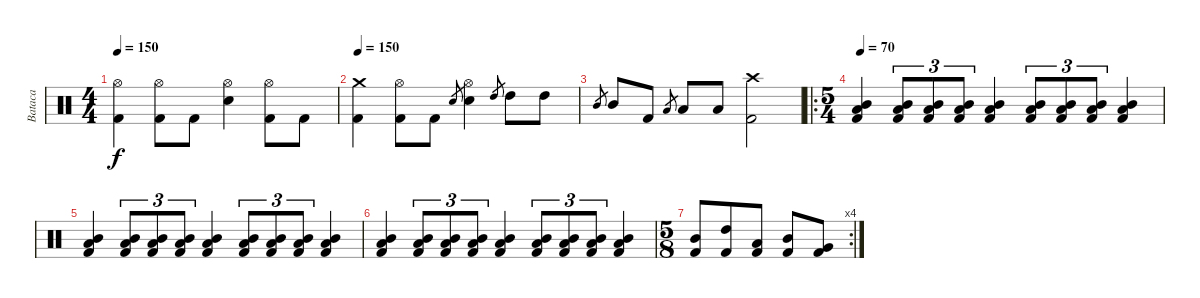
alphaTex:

\track ("Bataca" "Bataca") {instrument percussion}
\staff {score}
\articulation defaults
\ts (4 4)
\tempo 150
\clef neutral
\ks c
("Hi-Hat (open)" "Kick (hit) 2").4{dy f} ("Hi-Hat (open)" "Kick (hit) 2").8 "Kick (hit) 2".8 ("Hi-Hat (open)" "Electric Snare (hit)").4 ("Hi-Hat (open)" "Kick (hit) 2").8 "Kick (hit) 2".8 |
\tempo 150
("Crash medium (hit)" "Kick (hit) 2").4 ("Hi-Hat (open)" "Kick (hit) 2").8 "Kick (hit) 2".8 "Electric Snare (hit)".8{gr} ("Hi-Hat (open)" "Electric Snare (hit)").4 "High Tom (hit)".8{gr} "High Tom (hit)".8 "High Tom (hit)".8 |
"Mid Tom (hit)".8{gr} "Mid Tom (hit)".8 "Kick (hit) 2".8 "Low Tom (hit)".8{gr} "Low Tom (hit)".8 "Low Tom (hit)".8 ("Crash high (hit)" "Kick (hit) 2").2 |
\ro
\ts (5 4)
\tempo 80
\tempo 70
("Low Tom (hit)" "Mid Tom (hit)" "Kick (hit) 2").4 ("Low Tom (hit)" "Mid Tom (hit)" "Kick (hit) 2").8{tu (3 2)} ("Low Tom (hit)" "Mid Tom (hit)" "Kick (hit) 2").8{tu (3 2)} ("Low Tom (hit)" "Mid Tom (hit)" "Kick (hit) 2").8{tu (3 2)} ("Low Tom (hit)" "Mid Tom (hit)" "Kick (hit) 2").4 ("Low Tom (hit)" "Mid Tom (hit)" "Kick (hit) 2").8{tu (3 2)} ("Low Tom (hit)" "Mid Tom (hit)" "Kick (hit) 2").8{tu (3 2)} ("Low Tom (hit)" "Mid Tom (hit)" "Kick (hit) 2").8{tu (3 2)} ("Low Tom (hit)" "Mid Tom (hit)" "Kick (hit) 2").4 |
("Low Tom (hit)" "Mid Tom (hit)" "Kick (hit) 2").4 ("Low Tom (hit)" "Mid Tom (hit)" "Kick (hit) 2").8{tu (3 2)} ("Low Tom (hit)" "Mid Tom (hit)" "Kick (hit) 2").8{tu (3 2)} ("Low Tom (hit)" "Mid Tom (hit)" "Kick (hit) 2").8{tu (3 2)} ("Low Tom (hit)" "Mid Tom (hit)" "Kick (hit) 2").4 ("Low Tom (hit)" "Mid Tom (hit)" "Kick (hit) 2").8{tu (3 2)} ("Low Tom (hit)" "Mid Tom (hit)" "Kick (hit) 2").8{tu (3 2)} ("Low Tom (hit)" "Mid Tom (hit)" "Kick (hit) 2").8{tu (3 2)} ("Low Tom (hit)" "Mid Tom (hit)" "Kick (hit) 2").4 |
("Low Tom (hit)" "Mid Tom (hit)" "Kick (hit) 2").4 ("Low Tom (hit)" "Mid Tom (hit)" "Kick (hit) 2").8{tu (3 2)} ("Low Tom (hit)" "Mid Tom (hit)" "Kick (hit) 2").8{tu (3 2)} ("Low Tom (hit)" "Mid Tom (hit)" "Kick (hit) 2").8{tu (3 2)} ("Low Tom (hit)" "Mid Tom (hit)" "Kick (hit) 2").4 ("Low Tom (hit)" "Mid Tom (hit)" "Kick (hit) 2").8{tu (3 2)} ("Low Tom (hit)" "Mid Tom (hit)" "Kick (hit) 2").8{tu (3 2)} ("Low Tom (hit)" "Mid Tom (hit)" "Kick (hit) 2").8{tu (3 2)} ("Low Tom (hit)" "Mid Tom (hit)" "Kick (hit) 2").4 |
\rc 4
\ts (5 8)
("Mid Tom (hit)" "Kick (hit) 2").8 ("High Tom (hit)" "Kick (hit) 2").8 ("Low Tom (hit)" "Kick (hit) 2").8 ("Mid Tom (hit)" "Kick (hit) 2").8 ("Very Low Tom (hit)" "Kick (hit) 2").8
